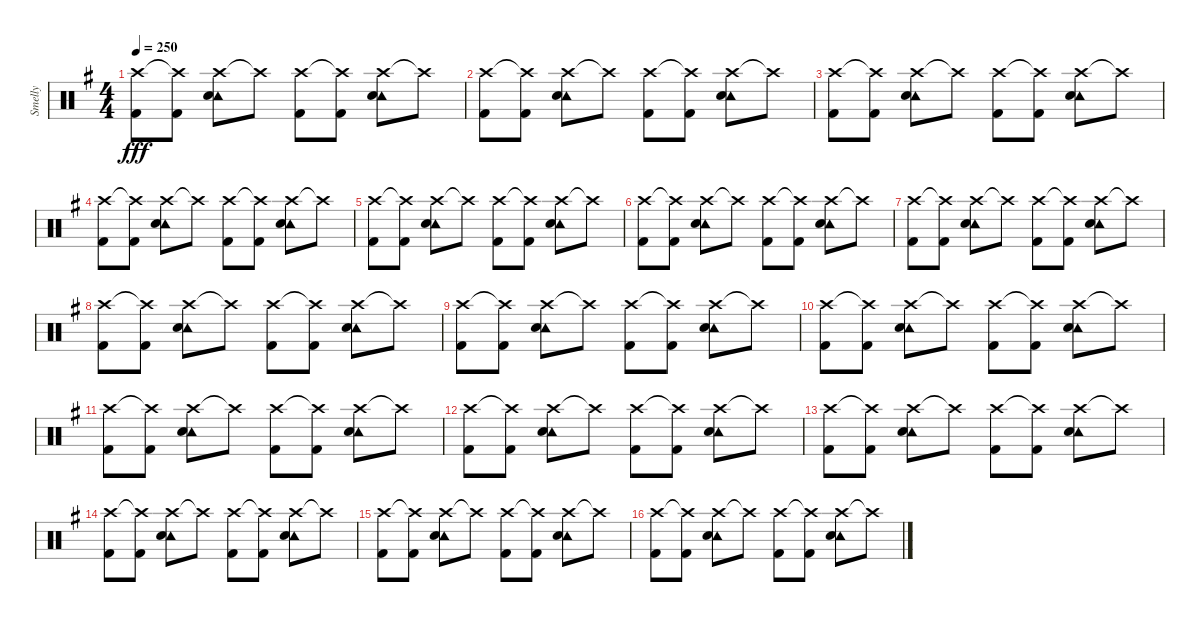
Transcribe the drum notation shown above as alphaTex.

\track ("Smelly" "Smelly") {instrument percussion}
\staff {score}
\articulation defaults
\ts (4 4)
\tempo 250
\clef neutral
\ks eminor
("Crash high (hit)" "Kick (hit) 2").8{dy fff} ("Crash high (hit)"{t} "Kick (hit) 2").8 ("Crash high (hit)" "Tambourine (hit)" "Electric Snare (hit)").8 "Crash high (hit)"{t}.8 ("Crash high (hit)" "Kick (hit) 2").8 ("Crash high (hit)"{t} "Kick (hit) 2").8 ("Crash high (hit)" "Tambourine (hit)" "Electric Snare (hit)").8 "Crash high (hit)"{t}.8 |
("Crash high (hit)" "Kick (hit) 2").8 ("Crash high (hit)"{t} "Kick (hit) 2").8 ("Crash high (hit)" "Tambourine (hit)" "Electric Snare (hit)").8 "Crash high (hit)"{t}.8 ("Crash high (hit)" "Kick (hit) 2").8 ("Crash high (hit)"{t} "Kick (hit) 2").8 ("Crash high (hit)" "Tambourine (hit)" "Electric Snare (hit)").8 "Crash high (hit)"{t}.8 |
("Crash high (hit)" "Kick (hit) 2").8 ("Crash high (hit)"{t} "Kick (hit) 2").8 ("Crash high (hit)" "Tambourine (hit)" "Electric Snare (hit)").8 "Crash high (hit)"{t}.8 ("Crash high (hit)" "Kick (hit) 2").8 ("Crash high (hit)"{t} "Kick (hit) 2").8 ("Crash high (hit)" "Tambourine (hit)" "Electric Snare (hit)").8 "Crash high (hit)"{t}.8 |
("Crash high (hit)" "Kick (hit) 2").8 ("Crash high (hit)"{t} "Kick (hit) 2").8 ("Crash high (hit)" "Tambourine (hit)" "Electric Snare (hit)").8 "Crash high (hit)"{t}.8 ("Crash high (hit)" "Kick (hit) 2").8 ("Crash high (hit)"{t} "Kick (hit) 2").8 ("Crash high (hit)" "Tambourine (hit)" "Electric Snare (hit)").8 "Crash high (hit)"{t}.8 |
("Crash high (hit)" "Kick (hit) 2").8 ("Crash high (hit)"{t} "Kick (hit) 2").8 ("Crash high (hit)" "Tambourine (hit)" "Electric Snare (hit)").8 "Crash high (hit)"{t}.8 ("Crash high (hit)" "Kick (hit) 2").8 ("Crash high (hit)"{t} "Kick (hit) 2").8 ("Crash high (hit)" "Tambourine (hit)" "Electric Snare (hit)").8 "Crash high (hit)"{t}.8 |
("Crash high (hit)" "Kick (hit) 2").8 ("Crash high (hit)"{t} "Kick (hit) 2").8 ("Crash high (hit)" "Tambourine (hit)" "Electric Snare (hit)").8 "Crash high (hit)"{t}.8 ("Crash high (hit)" "Kick (hit) 2").8 ("Crash high (hit)"{t} "Kick (hit) 2").8 ("Crash high (hit)" "Tambourine (hit)" "Electric Snare (hit)").8 "Crash high (hit)"{t}.8 |
("Crash high (hit)" "Kick (hit) 2").8 ("Crash high (hit)"{t} "Kick (hit) 2").8 ("Crash high (hit)" "Tambourine (hit)" "Electric Snare (hit)").8 "Crash high (hit)"{t}.8 ("Crash high (hit)" "Kick (hit) 2").8 ("Crash high (hit)"{t} "Kick (hit) 2").8 ("Crash high (hit)" "Tambourine (hit)" "Electric Snare (hit)").8 "Crash high (hit)"{t}.8 |
("Crash high (hit)" "Kick (hit) 2").8 ("Crash high (hit)"{t} "Kick (hit) 2").8 ("Crash high (hit)" "Tambourine (hit)" "Electric Snare (hit)").8 "Crash high (hit)"{t}.8 ("Crash high (hit)" "Kick (hit) 2").8 ("Crash high (hit)"{t} "Kick (hit) 2").8 ("Crash high (hit)" "Tambourine (hit)" "Electric Snare (hit)").8 "Crash high (hit)"{t}.8 |
("Crash high (hit)" "Kick (hit) 2").8 ("Crash high (hit)"{t} "Kick (hit) 2").8 ("Crash high (hit)" "Tambourine (hit)" "Electric Snare (hit)").8 "Crash high (hit)"{t}.8 ("Crash high (hit)" "Kick (hit) 2").8 ("Crash high (hit)"{t} "Kick (hit) 2").8 ("Crash high (hit)" "Tambourine (hit)" "Electric Snare (hit)").8 "Crash high (hit)"{t}.8 |
("Crash high (hit)" "Kick (hit) 2").8 ("Crash high (hit)"{t} "Kick (hit) 2").8 ("Crash high (hit)" "Tambourine (hit)" "Electric Snare (hit)").8 "Crash high (hit)"{t}.8 ("Crash high (hit)" "Kick (hit) 2").8 ("Crash high (hit)"{t} "Kick (hit) 2").8 ("Crash high (hit)" "Tambourine (hit)" "Electric Snare (hit)").8 "Crash high (hit)"{t}.8 |
("Crash high (hit)" "Kick (hit) 2").8 ("Crash high (hit)"{t} "Kick (hit) 2").8 ("Crash high (hit)" "Tambourine (hit)" "Electric Snare (hit)").8 "Crash high (hit)"{t}.8 ("Crash high (hit)" "Kick (hit) 2").8 ("Crash high (hit)"{t} "Kick (hit) 2").8 ("Crash high (hit)" "Tambourine (hit)" "Electric Snare (hit)").8 "Crash high (hit)"{t}.8 |
("Crash high (hit)" "Kick (hit) 2").8 ("Crash high (hit)"{t} "Kick (hit) 2").8 ("Crash high (hit)" "Tambourine (hit)" "Electric Snare (hit)").8 "Crash high (hit)"{t}.8 ("Crash high (hit)" "Kick (hit) 2").8 ("Crash high (hit)"{t} "Kick (hit) 2").8 ("Crash high (hit)" "Tambourine (hit)" "Electric Snare (hit)").8 "Crash high (hit)"{t}.8 |
("Crash high (hit)" "Kick (hit) 2").8 ("Crash high (hit)"{t} "Kick (hit) 2").8 ("Crash high (hit)" "Tambourine (hit)" "Electric Snare (hit)").8 "Crash high (hit)"{t}.8 ("Crash high (hit)" "Kick (hit) 2").8 ("Crash high (hit)"{t} "Kick (hit) 2").8 ("Crash high (hit)" "Tambourine (hit)" "Electric Snare (hit)").8 "Crash high (hit)"{t}.8 |
("Crash high (hit)" "Kick (hit) 2").8 ("Crash high (hit)"{t} "Kick (hit) 2").8 ("Crash high (hit)" "Tambourine (hit)" "Electric Snare (hit)").8 "Crash high (hit)"{t}.8 ("Crash high (hit)" "Kick (hit) 2").8 ("Crash high (hit)"{t} "Kick (hit) 2").8 ("Crash high (hit)" "Tambourine (hit)" "Electric Snare (hit)").8 "Crash high (hit)"{t}.8 |
("Crash high (hit)" "Kick (hit) 2").8 ("Crash high (hit)"{t} "Kick (hit) 2").8 ("Crash high (hit)" "Tambourine (hit)" "Electric Snare (hit)").8 "Crash high (hit)"{t}.8 ("Crash high (hit)" "Kick (hit) 2").8 ("Crash high (hit)"{t} "Kick (hit) 2").8 ("Crash high (hit)" "Tambourine (hit)" "Electric Snare (hit)").8 "Crash high (hit)"{t}.8 |
("Crash high (hit)" "Kick (hit) 2").8 ("Crash high (hit)"{t} "Kick (hit) 2").8 ("Crash high (hit)" "Tambourine (hit)" "Electric Snare (hit)").8 "Crash high (hit)"{t}.8 ("Crash high (hit)" "Kick (hit) 2").8 ("Crash high (hit)"{t} "Kick (hit) 2").8 ("Crash high (hit)" "Tambourine (hit)" "Electric Snare (hit)").8 "Crash high (hit)"{t}.8
